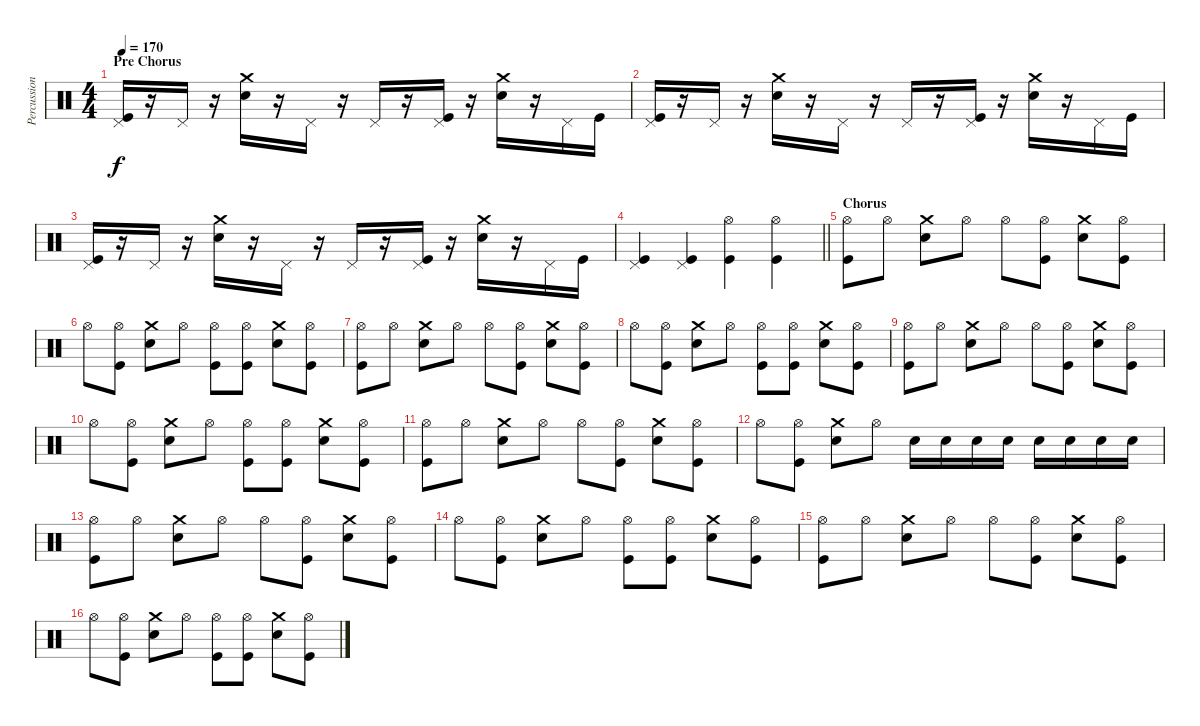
\track ("Percussion" "Percussion") {instrument percussion}
\staff {score}
\articulation defaults
\ts (4 4)
\section ("" "Pre Chorus")
\tempo 170
\clef neutral
\ks c
("Pedal Hi-Hat (hit)" "Kick (hit)").16{dy f} r.16 "Pedal Hi-Hat (hit)".16 r.16 ("Crash medium (hit)" "Snare (hit) 2").16 r.16 "Pedal Hi-Hat (hit)".16 r.16 "Pedal Hi-Hat (hit)".16 r.16 ("Pedal Hi-Hat (hit)" "Kick (hit)").16 r.16 ("Crash medium (hit)" "Snare (hit) 2").16 r.16 "Pedal Hi-Hat (hit)".16 "Kick (hit)".16 |
("Pedal Hi-Hat (hit)" "Kick (hit)").16 r.16 "Pedal Hi-Hat (hit)".16 r.16 ("Crash medium (hit)" "Snare (hit) 2").16 r.16 "Pedal Hi-Hat (hit)".16 r.16 "Pedal Hi-Hat (hit)".16 r.16 ("Pedal Hi-Hat (hit)" "Kick (hit)").16 r.16 ("Crash medium (hit)" "Snare (hit) 2").16 r.16 "Pedal Hi-Hat (hit)".16 "Kick (hit)".16 |
("Pedal Hi-Hat (hit)" "Kick (hit)").16 r.16 "Pedal Hi-Hat (hit)".16 r.16 ("Crash medium (hit)" "Snare (hit) 2").16 r.16 "Pedal Hi-Hat (hit)".16 r.16 "Pedal Hi-Hat (hit)".16 r.16 ("Pedal Hi-Hat (hit)" "Kick (hit)").16 r.16 ("Crash medium (hit)" "Snare (hit) 2").16 r.16 "Pedal Hi-Hat (hit)".16 "Kick (hit)".16 |
\barLineRight lightlight
("Pedal Hi-Hat (hit)" "Kick (hit)").4 ("Pedal Hi-Hat (hit)" "Kick (hit)").4 ("Hi-Hat (open)" "Kick (hit)").4 ("Hi-Hat (open)" "Kick (hit)").4 |
\section ("" "Chorus")
("Hi-Hat (open)" "Kick (hit)").8 "Hi-Hat (open)".8 ("Crash medium (hit)" "Snare (hit) 2").8 "Hi-Hat (open)".8 "Hi-Hat (open)".8 ("Hi-Hat (open)" "Kick (hit)").8 ("Crash medium (hit)" "Snare (hit) 2").8 ("Hi-Hat (open)" "Kick (hit)").8 |
"Hi-Hat (open)".8 ("Hi-Hat (open)" "Kick (hit)").8 ("Crash medium (hit)" "Snare (hit) 2").8 "Hi-Hat (open)".8 ("Hi-Hat (open)" "Kick (hit)").8 ("Hi-Hat (open)" "Kick (hit)").8 ("Crash medium (hit)" "Snare (hit) 2").8 ("Hi-Hat (open)" "Kick (hit)").8 |
("Hi-Hat (open)" "Kick (hit)").8 "Hi-Hat (open)".8 ("Crash medium (hit)" "Snare (hit) 2").8 "Hi-Hat (open)".8 "Hi-Hat (open)".8 ("Hi-Hat (open)" "Kick (hit)").8 ("Crash medium (hit)" "Snare (hit) 2").8 ("Hi-Hat (open)" "Kick (hit)").8 |
"Hi-Hat (open)".8 ("Hi-Hat (open)" "Kick (hit)").8 ("Crash medium (hit)" "Snare (hit) 2").8 "Hi-Hat (open)".8 ("Hi-Hat (open)" "Kick (hit)").8 ("Hi-Hat (open)" "Kick (hit)").8 ("Crash medium (hit)" "Snare (hit) 2").8 ("Hi-Hat (open)" "Kick (hit)").8 |
("Hi-Hat (open)" "Kick (hit)").8 "Hi-Hat (open)".8 ("Crash medium (hit)" "Snare (hit) 2").8 "Hi-Hat (open)".8 "Hi-Hat (open)".8 ("Hi-Hat (open)" "Kick (hit)").8 ("Crash medium (hit)" "Snare (hit) 2").8 ("Hi-Hat (open)" "Kick (hit)").8 |
"Hi-Hat (open)".8 ("Hi-Hat (open)" "Kick (hit)").8 ("Crash medium (hit)" "Snare (hit) 2").8 "Hi-Hat (open)".8 ("Hi-Hat (open)" "Kick (hit)").8 ("Hi-Hat (open)" "Kick (hit)").8 ("Crash medium (hit)" "Snare (hit) 2").8 ("Hi-Hat (open)" "Kick (hit)").8 |
("Hi-Hat (open)" "Kick (hit)").8 "Hi-Hat (open)".8 ("Crash medium (hit)" "Snare (hit) 2").8 "Hi-Hat (open)".8 "Hi-Hat (open)".8 ("Hi-Hat (open)" "Kick (hit)").8 ("Crash medium (hit)" "Snare (hit) 2").8 ("Hi-Hat (open)" "Kick (hit)").8 |
"Hi-Hat (open)".8 ("Hi-Hat (open)" "Kick (hit)").8 ("Crash medium (hit)" "Snare (hit) 2").8 "Hi-Hat (open)".8 "Snare (hit) 2".16 "Snare (hit) 2".16 "Snare (hit) 2".16 "Snare (hit) 2".16 "Snare (hit) 2".16 "Snare (hit) 2".16 "Snare (hit) 2".16 "Snare (hit) 2".16 |
("Hi-Hat (open)" "Kick (hit)").8 "Hi-Hat (open)".8 ("Crash medium (hit)" "Snare (hit) 2").8 "Hi-Hat (open)".8 "Hi-Hat (open)".8 ("Hi-Hat (open)" "Kick (hit)").8 ("Crash medium (hit)" "Snare (hit) 2").8 ("Hi-Hat (open)" "Kick (hit)").8 |
"Hi-Hat (open)".8 ("Hi-Hat (open)" "Kick (hit)").8 ("Crash medium (hit)" "Snare (hit) 2").8 "Hi-Hat (open)".8 ("Hi-Hat (open)" "Kick (hit)").8 ("Hi-Hat (open)" "Kick (hit)").8 ("Crash medium (hit)" "Snare (hit) 2").8 ("Hi-Hat (open)" "Kick (hit)").8 |
("Hi-Hat (open)" "Kick (hit)").8 "Hi-Hat (open)".8 ("Crash medium (hit)" "Snare (hit) 2").8 "Hi-Hat (open)".8 "Hi-Hat (open)".8 ("Hi-Hat (open)" "Kick (hit)").8 ("Crash medium (hit)" "Snare (hit) 2").8 ("Hi-Hat (open)" "Kick (hit)").8 |
"Hi-Hat (open)".8 ("Hi-Hat (open)" "Kick (hit)").8 ("Crash medium (hit)" "Snare (hit) 2").8 "Hi-Hat (open)".8 ("Hi-Hat (open)" "Kick (hit)").8 ("Hi-Hat (open)" "Kick (hit)").8 ("Crash medium (hit)" "Snare (hit) 2").8 ("Hi-Hat (open)" "Kick (hit)").8
